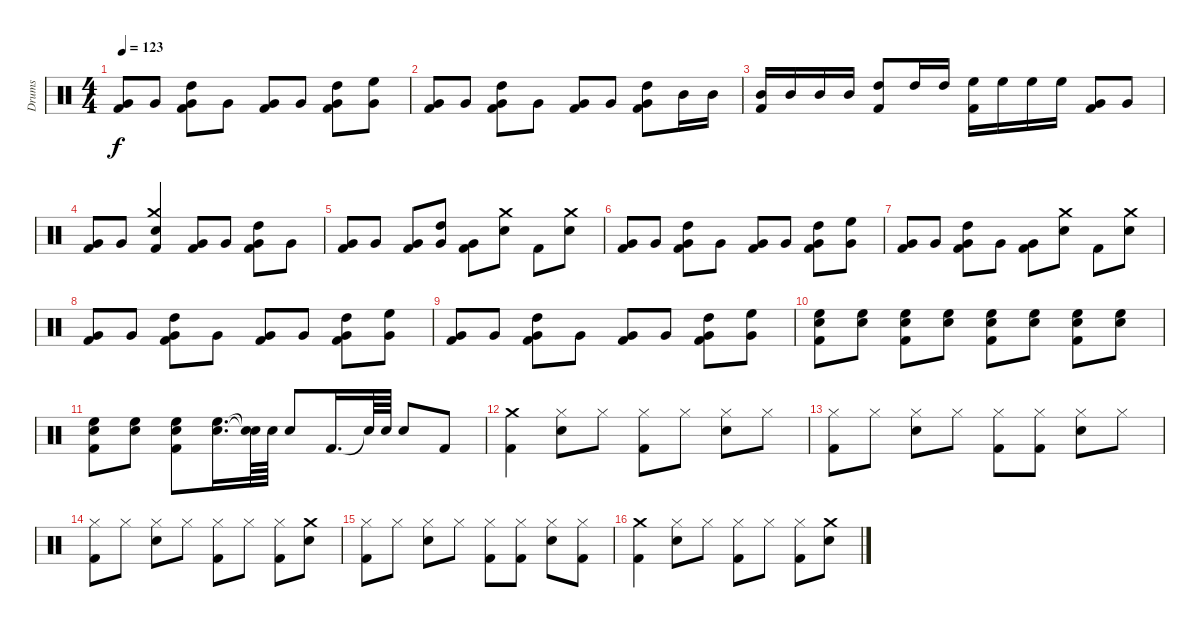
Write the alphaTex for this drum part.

\track ("Drums" "Drums") {instrument percussion}
\staff {score}
\articulation defaults
\ts (4 4)
\tempo 123
\clef neutral
\ks c
("Very Low Tom (hit)" "Kick (hit) 2").8{dy f} "Very Low Tom (hit)".8 ("High Tom (hit)" "Very Low Tom (hit)" "Kick (hit) 2").8 "Very Low Tom (hit)".8 ("Very Low Tom (hit)" "Kick (hit) 2").8 "Very Low Tom (hit)".8 ("High Tom (hit)" "Very Low Tom (hit)" "Kick (hit) 2").8 ("High Floor Tom (hit)" "Very Low Tom (hit)").8 |
("Very Low Tom (hit)" "Kick (hit) 2").8 "Very Low Tom (hit)".8 ("High Tom (hit)" "Very Low Tom (hit)" "Kick (hit) 2").8 "Very Low Tom (hit)".8 ("Very Low Tom (hit)" "Kick (hit) 2").8 "Very Low Tom (hit)".8 ("High Tom (hit)" "Very Low Tom (hit)" "Kick (hit) 2").8 "Mid Tom (hit)".16 "Mid Tom (hit)".16 |
("Mid Tom (hit)" "Kick (hit) 2").16 "Mid Tom (hit)".16 "Mid Tom (hit)".16 "Mid Tom (hit)".16 ("High Tom (hit)" "Kick (hit) 2").8 "High Tom (hit)".16 "High Tom (hit)".16 ("High Floor Tom (hit)" "Kick (hit) 2").16 "High Floor Tom (hit)".16 "High Floor Tom (hit)".16 "High Floor Tom (hit)".16 ("Very Low Tom (hit)" "Kick (hit) 2").8 "Very Low Tom (hit)".8 |
("Very Low Tom (hit)" "Kick (hit) 2").8 "Very Low Tom (hit)".8 ("Crash medium (hit)" "Snare (hit) 2" "Kick (hit) 2").4 ("Very Low Tom (hit)" "Kick (hit) 2").8 "Very Low Tom (hit)".8 ("High Tom (hit)" "Very Low Tom (hit)" "Kick (hit) 2").8 "Very Low Tom (hit)".8 |
("Very Low Tom (hit)" "Kick (hit) 2").8 "Very Low Tom (hit)".8 ("Very Low Tom (hit)" "Kick (hit) 2").8 ("High Tom (hit)" "Very Low Tom (hit)").8 ("Very Low Tom (hit)" "Kick (hit) 2").8 ("Snare (hit) 2" "Crash medium (hit)").8 "Kick (hit) 2".8 ("Crash medium (hit)" "Snare (hit) 2").8 |
("Very Low Tom (hit)" "Kick (hit) 2").8 "Very Low Tom (hit)".8 ("High Tom (hit)" "Very Low Tom (hit)" "Kick (hit) 2").8 "Very Low Tom (hit)".8 ("Very Low Tom (hit)" "Kick (hit) 2").8 "Very Low Tom (hit)".8 ("High Tom (hit)" "Very Low Tom (hit)" "Kick (hit) 2").8 ("High Floor Tom (hit)" "Very Low Tom (hit)").8 |
("Very Low Tom (hit)" "Kick (hit) 2").8 "Very Low Tom (hit)".8 ("High Tom (hit)" "Very Low Tom (hit)" "Kick (hit) 2").8 "Very Low Tom (hit)".8 ("Very Low Tom (hit)" "Kick (hit) 2").8 ("Snare (hit) 2" "Crash medium (hit)").8 "Kick (hit) 2".8 ("Snare (hit) 2" "Crash medium (hit)").8 |
("Very Low Tom (hit)" "Kick (hit) 2").8 "Very Low Tom (hit)".8 ("High Tom (hit)" "Very Low Tom (hit)" "Kick (hit) 2").8 "Very Low Tom (hit)".8 ("Very Low Tom (hit)" "Kick (hit) 2").8 "Very Low Tom (hit)".8 ("High Tom (hit)" "Very Low Tom (hit)" "Kick (hit) 2").8 ("High Floor Tom (hit)" "Very Low Tom (hit)").8 |
("Very Low Tom (hit)" "Kick (hit) 2").8 "Very Low Tom (hit)".8 ("High Tom (hit)" "Very Low Tom (hit)" "Kick (hit) 2").8 "Very Low Tom (hit)".8 ("Very Low Tom (hit)" "Kick (hit) 2").8 "Very Low Tom (hit)".8 ("High Tom (hit)" "Very Low Tom (hit)" "Kick (hit) 2").8 ("High Floor Tom (hit)" "Very Low Tom (hit)").8 |
("High Floor Tom (hit)" "Snare (hit) 2" "Kick (hit) 2").8 ("High Floor Tom (hit)" "Snare (hit) 2").8 ("High Floor Tom (hit)" "Snare (hit) 2" "Kick (hit) 2").8 ("High Floor Tom (hit)" "Snare (hit) 2").8 ("High Floor Tom (hit)" "Snare (hit) 2" "Kick (hit) 2").8 ("High Floor Tom (hit)" "Snare (hit) 2").8 ("High Floor Tom (hit)" "Snare (hit) 2" "Kick (hit) 2").8 ("High Floor Tom (hit)" "Snare (hit) 2").8 |
("Snare (hit) 2" "High Floor Tom (hit)" "Kick (hit) 2").8 ("Snare (hit) 2" "High Floor Tom (hit)").8 ("Snare (hit) 2" "High Floor Tom (hit)" "Kick (hit) 2").8 ("Snare (hit) 2" "High Floor Tom (hit)").16{d} ("Snare (hit)"{t} "Snare (hit)"{t}).64 "Snare (hit) 2".64 "Snare (hit) 2".8 "Kick (hit) 2".16{d} "Snare (hit)"{t}.64 "Snare (hit) 2".64 "Snare (hit) 2".8 "Kick (hit) 2".8 |
("Kick (hit) 2" "Crash medium (hit)").4 ("Snare (hit) 2" "Hi-Hat (closed)").8 "Hi-Hat (closed)".8 ("Hi-Hat (closed)" "Kick (hit) 2").8 "Hi-Hat (closed)".8 ("Snare (hit) 2" "Hi-Hat (closed)").8 "Hi-Hat (closed)".8 |
("Hi-Hat (closed)" "Kick (hit) 2").8 "Hi-Hat (closed)".8 ("Snare (hit) 2" "Hi-Hat (closed)").8 "Hi-Hat (closed)".8 ("Kick (hit) 2" "Hi-Hat (closed)").8 ("Kick (hit) 2" "Hi-Hat (closed)").8 ("Snare (hit) 2" "Hi-Hat (closed)").8 "Hi-Hat (closed)".8 |
("Hi-Hat (closed)" "Kick (hit) 2").8 "Hi-Hat (closed)".8 ("Snare (hit) 2" "Hi-Hat (closed)").8 "Hi-Hat (closed)".8 ("Hi-Hat (closed)" "Kick (hit) 2").8 "Hi-Hat (closed)".8 ("Hi-Hat (closed)" "Kick (hit) 2").8 ("Crash medium (hit)" "Snare (hit) 2").8 |
("Hi-Hat (closed)" "Kick (hit) 2").8 "Hi-Hat (closed)".8 ("Snare (hit) 2" "Hi-Hat (closed)").8 "Hi-Hat (closed)".8 ("Kick (hit) 2" "Hi-Hat (closed)").8 ("Kick (hit) 2" "Hi-Hat (closed)").8 ("Snare (hit) 2" "Hi-Hat (closed)").8 ("Kick (hit) 2" "Hi-Hat (closed)").8 |
("Kick (hit) 2" "Crash medium (hit)").4 ("Hi-Hat (closed)" "Snare (hit) 2").8 "Hi-Hat (closed)".8 ("Kick (hit) 2" "Hi-Hat (closed)").8 "Hi-Hat (closed)".8 ("Kick (hit) 2" "Hi-Hat (closed)").8 ("Crash medium (hit)" "Snare (hit) 2").8
